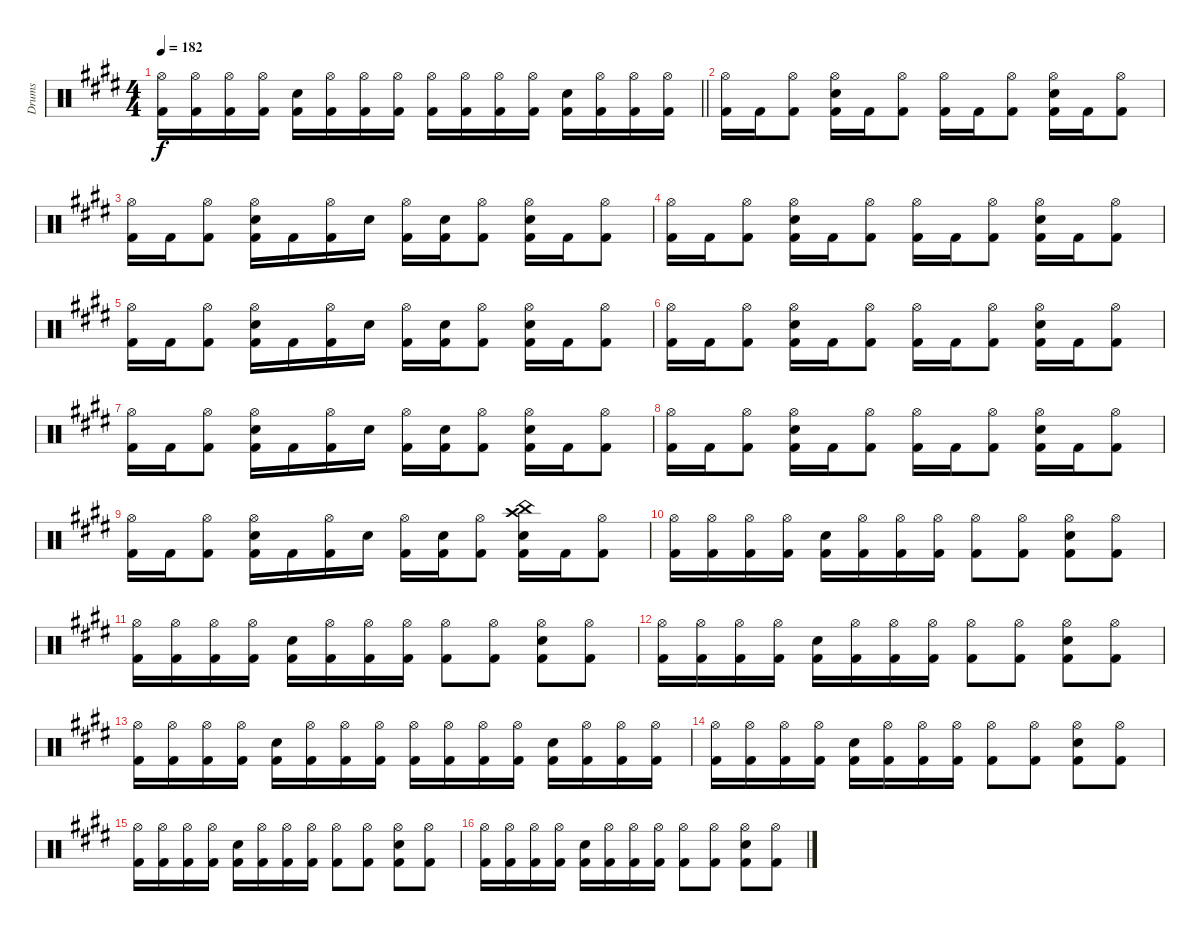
\track ("Drums" "Drums") {instrument percussion}
\staff {score}
\articulation defaults
\ts (4 4)
\tempo 182
\clef neutral
\barLineRight lightlight
\ks c#minor
("Hi-Hat (open)" "Kick (hit) 2").16{dy f} ("Hi-Hat (open)" "Kick (hit) 2").16 ("Hi-Hat (open)" "Kick (hit) 2").16 ("Hi-Hat (open)" "Kick (hit) 2").16 ("Snare (hit) 2" "Kick (hit) 2").16 ("Hi-Hat (open)" "Kick (hit) 2").16 ("Hi-Hat (open)" "Kick (hit) 2").16 ("Hi-Hat (open)" "Kick (hit) 2").16 ("Hi-Hat (open)" "Kick (hit) 2").16 ("Hi-Hat (open)" "Kick (hit) 2").16 ("Hi-Hat (open)" "Kick (hit) 2").16 ("Hi-Hat (open)" "Kick (hit) 2").16 ("Snare (hit) 2" "Kick (hit) 2").16 ("Hi-Hat (open)" "Kick (hit) 2").16 ("Hi-Hat (open)" "Kick (hit) 2").16 ("Hi-Hat (open)" "Kick (hit) 2").16 |
("Hi-Hat (open)" "Kick (hit) 2").16 "Kick (hit) 2".16 ("Hi-Hat (open)" "Kick (hit) 2").8 ("Hi-Hat (open)" "Snare (hit) 2" "Kick (hit) 2").16 "Kick (hit) 2".16 ("Hi-Hat (open)" "Kick (hit) 2").8 ("Hi-Hat (open)" "Kick (hit) 2").16 "Kick (hit) 2".16 ("Hi-Hat (open)" "Kick (hit) 2").8 ("Hi-Hat (open)" "Snare (hit) 2" "Kick (hit) 2").16 "Kick (hit) 2".16 ("Hi-Hat (open)" "Kick (hit) 2").8 |
("Hi-Hat (open)" "Kick (hit) 2").16 "Kick (hit) 2".16 ("Hi-Hat (open)" "Kick (hit) 2").8 ("Hi-Hat (open)" "Snare (hit) 2" "Kick (hit) 2").16 "Kick (hit) 2".16 ("Hi-Hat (open)" "Kick (hit) 2").16 "Snare (hit) 2".16 ("Hi-Hat (open)" "Kick (hit) 2").16 ("Snare (hit) 2" "Kick (hit) 2").16 ("Hi-Hat (open)" "Kick (hit) 2").8 ("Hi-Hat (open)" "Snare (hit) 2" "Kick (hit) 2").16 "Kick (hit) 2".16 ("Hi-Hat (open)" "Kick (hit) 2").8 |
("Hi-Hat (open)" "Kick (hit) 2").16 "Kick (hit) 2".16 ("Hi-Hat (open)" "Kick (hit) 2").8 ("Hi-Hat (open)" "Snare (hit) 2" "Kick (hit) 2").16 "Kick (hit) 2".16 ("Hi-Hat (open)" "Kick (hit) 2").8 ("Hi-Hat (open)" "Kick (hit) 2").16 "Kick (hit) 2".16 ("Hi-Hat (open)" "Kick (hit) 2").8 ("Hi-Hat (open)" "Snare (hit) 2" "Kick (hit) 2").16 "Kick (hit) 2".16 ("Hi-Hat (open)" "Kick (hit) 2").8 |
("Hi-Hat (open)" "Kick (hit) 2").16 "Kick (hit) 2".16 ("Hi-Hat (open)" "Kick (hit) 2").8 ("Hi-Hat (open)" "Snare (hit) 2" "Kick (hit) 2").16 "Kick (hit) 2".16 ("Hi-Hat (open)" "Kick (hit) 2").16 "Snare (hit) 2".16 ("Hi-Hat (open)" "Kick (hit) 2").16 ("Snare (hit) 2" "Kick (hit) 2").16 ("Hi-Hat (open)" "Kick (hit) 2").8 ("Hi-Hat (open)" "Snare (hit) 2" "Kick (hit) 2").16 "Kick (hit) 2".16 ("Hi-Hat (open)" "Kick (hit) 2").8 |
("Hi-Hat (open)" "Kick (hit) 2").16 "Kick (hit) 2".16 ("Hi-Hat (open)" "Kick (hit) 2").8 ("Hi-Hat (open)" "Snare (hit) 2" "Kick (hit) 2").16 "Kick (hit) 2".16 ("Hi-Hat (open)" "Kick (hit) 2").8 ("Hi-Hat (open)" "Kick (hit) 2").16 "Kick (hit) 2".16 ("Hi-Hat (open)" "Kick (hit) 2").8 ("Hi-Hat (open)" "Snare (hit) 2" "Kick (hit) 2").16 "Kick (hit) 2".16 ("Hi-Hat (open)" "Kick (hit) 2").8 |
("Hi-Hat (open)" "Kick (hit) 2").16 "Kick (hit) 2".16 ("Hi-Hat (open)" "Kick (hit) 2").8 ("Hi-Hat (open)" "Snare (hit) 2" "Kick (hit) 2").16 "Kick (hit) 2".16 ("Hi-Hat (open)" "Kick (hit) 2").16 "Snare (hit) 2".16 ("Hi-Hat (open)" "Kick (hit) 2").16 ("Snare (hit) 2" "Kick (hit) 2").16 ("Hi-Hat (open)" "Kick (hit) 2").8 ("Hi-Hat (open)" "Snare (hit) 2" "Kick (hit) 2").16 "Kick (hit) 2".16 ("Hi-Hat (open)" "Kick (hit) 2").8 |
("Hi-Hat (open)" "Kick (hit) 2").16 "Kick (hit) 2".16 ("Hi-Hat (open)" "Kick (hit) 2").8 ("Hi-Hat (open)" "Snare (hit) 2" "Kick (hit) 2").16 "Kick (hit) 2".16 ("Hi-Hat (open)" "Kick (hit) 2").8 ("Hi-Hat (open)" "Kick (hit) 2").16 "Kick (hit) 2".16 ("Hi-Hat (open)" "Kick (hit) 2").8 ("Hi-Hat (open)" "Snare (hit) 2" "Kick (hit) 2").16 "Kick (hit) 2".16 ("Hi-Hat (open)" "Kick (hit) 2").8 |
("Hi-Hat (open)" "Kick (hit) 2").16 "Kick (hit) 2".16 ("Hi-Hat (open)" "Kick (hit) 2").8 ("Hi-Hat (open)" "Snare (hit) 2" "Kick (hit) 2").16 "Kick (hit) 2".16 ("Hi-Hat (open)" "Kick (hit) 2").16 "Snare (hit) 2".16 ("Hi-Hat (open)" "Kick (hit) 2").16 ("Snare (hit) 2" "Kick (hit) 2").16 ("Hi-Hat (open)" "Kick (hit) 2").8 ("China (hit)" "Crash high (hit)" "Snare (hit) 2" "Kick (hit) 2").16 "Kick (hit) 2".16 ("Hi-Hat (open)" "Kick (hit) 2").8 |
("Hi-Hat (open)" "Kick (hit) 2").16 ("Hi-Hat (open)" "Kick (hit) 2").16 ("Hi-Hat (open)" "Kick (hit) 2").16 ("Hi-Hat (open)" "Kick (hit) 2").16 ("Snare (hit) 2" "Kick (hit) 2").16 ("Hi-Hat (open)" "Kick (hit) 2").16 ("Hi-Hat (open)" "Kick (hit) 2").16 ("Hi-Hat (open)" "Kick (hit) 2").16 ("Hi-Hat (open)" "Kick (hit) 2").8 ("Hi-Hat (open)" "Kick (hit) 2").8 ("Hi-Hat (open)" "Snare (hit) 2" "Kick (hit) 2").8 ("Hi-Hat (open)" "Kick (hit) 2").8 |
("Hi-Hat (open)" "Kick (hit) 2").16 ("Hi-Hat (open)" "Kick (hit) 2").16 ("Hi-Hat (open)" "Kick (hit) 2").16 ("Hi-Hat (open)" "Kick (hit) 2").16 ("Snare (hit) 2" "Kick (hit) 2").16 ("Hi-Hat (open)" "Kick (hit) 2").16 ("Hi-Hat (open)" "Kick (hit) 2").16 ("Hi-Hat (open)" "Kick (hit) 2").16 ("Hi-Hat (open)" "Kick (hit) 2").8 ("Hi-Hat (open)" "Kick (hit) 2").8 ("Hi-Hat (open)" "Snare (hit) 2" "Kick (hit) 2").8 ("Hi-Hat (open)" "Kick (hit) 2").8 |
("Hi-Hat (open)" "Kick (hit) 2").16 ("Hi-Hat (open)" "Kick (hit) 2").16 ("Hi-Hat (open)" "Kick (hit) 2").16 ("Hi-Hat (open)" "Kick (hit) 2").16 ("Snare (hit) 2" "Kick (hit) 2").16 ("Hi-Hat (open)" "Kick (hit) 2").16 ("Hi-Hat (open)" "Kick (hit) 2").16 ("Hi-Hat (open)" "Kick (hit) 2").16 ("Hi-Hat (open)" "Kick (hit) 2").8 ("Hi-Hat (open)" "Kick (hit) 2").8 ("Hi-Hat (open)" "Snare (hit) 2" "Kick (hit) 2").8 ("Hi-Hat (open)" "Kick (hit) 2").8 |
("Hi-Hat (open)" "Kick (hit) 2").16 ("Hi-Hat (open)" "Kick (hit) 2").16 ("Hi-Hat (open)" "Kick (hit) 2").16 ("Hi-Hat (open)" "Kick (hit) 2").16 ("Snare (hit) 2" "Kick (hit) 2").16 ("Hi-Hat (open)" "Kick (hit) 2").16 ("Hi-Hat (open)" "Kick (hit) 2").16 ("Hi-Hat (open)" "Kick (hit) 2").16 ("Hi-Hat (open)" "Kick (hit) 2").16 ("Hi-Hat (open)" "Kick (hit) 2").16 ("Hi-Hat (open)" "Kick (hit) 2").16 ("Hi-Hat (open)" "Kick (hit) 2").16 ("Snare (hit) 2" "Kick (hit) 2").16 ("Hi-Hat (open)" "Kick (hit) 2").16 ("Hi-Hat (open)" "Kick (hit) 2").16 ("Hi-Hat (open)" "Kick (hit) 2").16 |
("Hi-Hat (open)" "Kick (hit) 2").16 ("Hi-Hat (open)" "Kick (hit) 2").16 ("Hi-Hat (open)" "Kick (hit) 2").16 ("Hi-Hat (open)" "Kick (hit) 2").16 ("Snare (hit) 2" "Kick (hit) 2").16 ("Hi-Hat (open)" "Kick (hit) 2").16 ("Hi-Hat (open)" "Kick (hit) 2").16 ("Hi-Hat (open)" "Kick (hit) 2").16 ("Hi-Hat (open)" "Kick (hit) 2").8 ("Hi-Hat (open)" "Kick (hit) 2").8 ("Hi-Hat (open)" "Snare (hit) 2" "Kick (hit) 2").8 ("Hi-Hat (open)" "Kick (hit) 2").8 |
("Hi-Hat (open)" "Kick (hit) 2").16 ("Hi-Hat (open)" "Kick (hit) 2").16 ("Hi-Hat (open)" "Kick (hit) 2").16 ("Hi-Hat (open)" "Kick (hit) 2").16 ("Snare (hit) 2" "Kick (hit) 2").16 ("Hi-Hat (open)" "Kick (hit) 2").16 ("Hi-Hat (open)" "Kick (hit) 2").16 ("Hi-Hat (open)" "Kick (hit) 2").16 ("Hi-Hat (open)" "Kick (hit) 2").8 ("Hi-Hat (open)" "Kick (hit) 2").8 ("Hi-Hat (open)" "Snare (hit) 2" "Kick (hit) 2").8 ("Hi-Hat (open)" "Kick (hit) 2").8 |
("Hi-Hat (open)" "Kick (hit) 2").16 ("Hi-Hat (open)" "Kick (hit) 2").16 ("Hi-Hat (open)" "Kick (hit) 2").16 ("Hi-Hat (open)" "Kick (hit) 2").16 ("Snare (hit) 2" "Kick (hit) 2").16 ("Hi-Hat (open)" "Kick (hit) 2").16 ("Hi-Hat (open)" "Kick (hit) 2").16 ("Hi-Hat (open)" "Kick (hit) 2").16 ("Hi-Hat (open)" "Kick (hit) 2").8 ("Hi-Hat (open)" "Kick (hit) 2").8 ("Hi-Hat (open)" "Snare (hit) 2" "Kick (hit) 2").8 ("Hi-Hat (open)" "Kick (hit) 2").8
